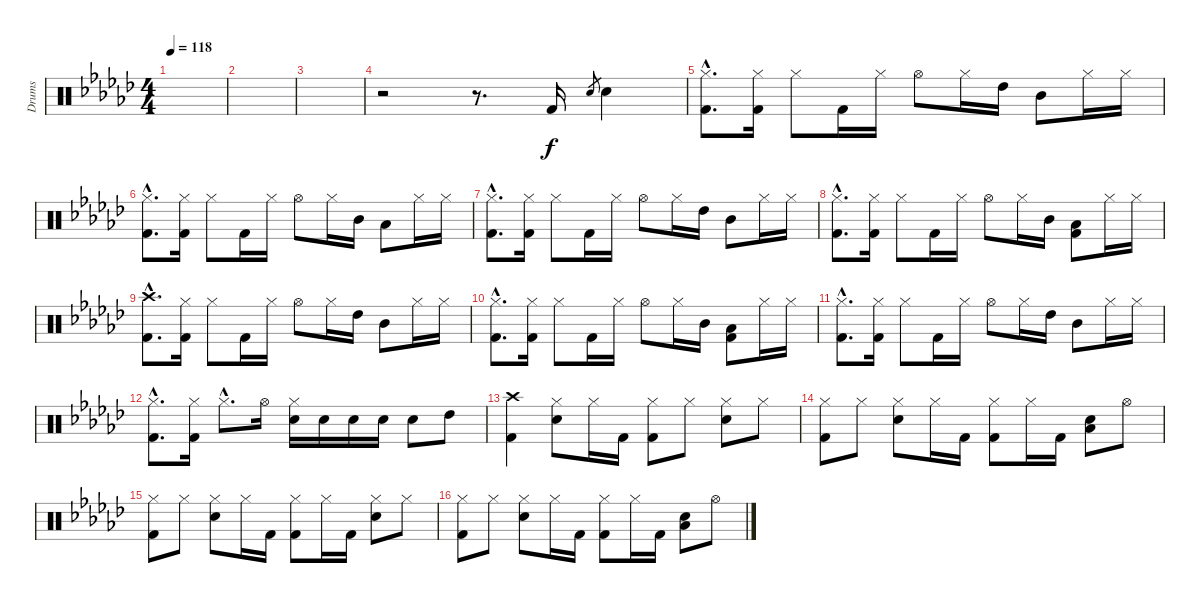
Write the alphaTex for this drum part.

\track ("Drums" "Drums") {instrument percussion}
\staff {score}
\articulation defaults
\ts (4 4)
\tempo 118
\clef neutral
\ks ebminor
|
|
|
r.2 r.8{d} "Kick (hit) 2".16 "Electric Snare (hit)".8{gr} "Electric Snare (hit)".4 |
("Hi-Hat (closed)"{hac} "Kick (hit) 2"{hac}).8{d} ("Hi-Hat (closed)" "Kick (hit) 2").16 "Hi-Hat (closed)".8 "Kick (hit) 2".16 "Hi-Hat (closed)".16 "Hi-Hat (open)".8 "Hi-Hat (closed)".16 "High Tom (hit)".16 "Mid Tom (hit)".8 "Hi-Hat (closed)".16 "Hi-Hat (closed)".16 |
("Hi-Hat (closed)"{hac} "Kick (hit) 2"{hac}).8{d} ("Hi-Hat (closed)" "Kick (hit) 2").16 "Hi-Hat (closed)".8 "Kick (hit) 2".16 "Hi-Hat (closed)".16 "Hi-Hat (open)".8 "Hi-Hat (closed)".16 "Mid Tom (hit)".16 "Low Tom (hit)".8 "Hi-Hat (closed)".16 "Hi-Hat (closed)".16 |
("Hi-Hat (closed)"{hac} "Kick (hit) 2"{hac}).8{d} ("Hi-Hat (closed)" "Kick (hit) 2").16 "Hi-Hat (closed)".8 "Kick (hit) 2".16 "Hi-Hat (closed)".16 "Hi-Hat (open)".8 "Hi-Hat (closed)".16 "High Tom (hit)".16 "Mid Tom (hit)".8 "Hi-Hat (closed)".16 "Hi-Hat (closed)".16 |
("Hi-Hat (closed)"{hac} "Kick (hit) 2"{hac}).8{d} ("Hi-Hat (closed)" "Kick (hit) 2").16 "Hi-Hat (closed)".8 "Kick (hit) 2".16 "Hi-Hat (closed)".16 "Hi-Hat (open)".8 "Hi-Hat (closed)".16 "Mid Tom (hit)".16 ("Low Tom (hit)" "Kick (hit) 2").8 "Hi-Hat (closed)".16 "Hi-Hat (closed)".16 |
("Crash high (hit)"{hac} "Kick (hit) 2"{hac}).8{d} ("Hi-Hat (closed)" "Kick (hit) 2").16 "Hi-Hat (closed)".8 "Kick (hit) 2".16 "Hi-Hat (closed)".16 "Hi-Hat (open)".8 "Hi-Hat (closed)".16 "High Tom (hit)".16 "Mid Tom (hit)".8 "Hi-Hat (closed)".16 "Hi-Hat (closed)".16 |
("Hi-Hat (closed)"{hac} "Kick (hit) 2"{hac}).8{d} ("Hi-Hat (closed)" "Kick (hit) 2").16 "Hi-Hat (closed)".8 "Kick (hit) 2".16 "Hi-Hat (closed)".16 "Hi-Hat (open)".8 "Hi-Hat (closed)".16 "Mid Tom (hit)".16 ("Low Tom (hit)" "Kick (hit) 2").8 "Hi-Hat (closed)".16 "Hi-Hat (closed)".16 |
("Hi-Hat (closed)"{hac} "Kick (hit) 2"{hac}).8{d} ("Hi-Hat (closed)" "Kick (hit) 2").16 "Hi-Hat (closed)".8 "Kick (hit) 2".16 "Hi-Hat (closed)".16 "Hi-Hat (open)".8 "Hi-Hat (closed)".16 "High Tom (hit)".16 "Mid Tom (hit)".8 "Hi-Hat (closed)".16 "Hi-Hat (closed)".16 |
("Hi-Hat (closed)"{hac} "Kick (hit) 2"{hac}).8{d} ("Hi-Hat (closed)" "Kick (hit) 2").16 "Hi-Hat (closed)"{hac}.8{d} "Hi-Hat (open)".16 ("Hi-Hat (closed)" "Electric Snare (hit)").16 "Electric Snare (hit)".16 "Electric Snare (hit)".16 "Electric Snare (hit)".16 "Electric Snare (hit)".8 "High Tom (hit)".8 |
("Crash high (hit)" "Kick (hit) 2").4 ("Hi-Hat (closed)" "Electric Snare (hit)").8 "Hi-Hat (closed)".16 "Kick (hit) 2".16 ("Hi-Hat (closed)" "Kick (hit) 2").8 "Hi-Hat (closed)".8 ("Hi-Hat (closed)" "Electric Snare (hit)").8 "Hi-Hat (closed)".8 |
("Hi-Hat (closed)" "Kick (hit) 2").8 "Hi-Hat (closed)".8 ("Hi-Hat (closed)" "Electric Snare (hit)").8 "Hi-Hat (closed)".16 "Kick (hit) 2".16 ("Hi-Hat (closed)" "Kick (hit) 2").8 "Hi-Hat (closed)".16 "Kick (hit) 2".16 ("Electric Snare (hit)" "Low Tom (hit)").8 "Hi-Hat (open)".8 |
("Hi-Hat (closed)" "Kick (hit) 2").8 "Hi-Hat (closed)".8 ("Hi-Hat (closed)" "Electric Snare (hit)").8 "Hi-Hat (closed)".16 "Kick (hit) 2".16 ("Hi-Hat (closed)" "Kick (hit) 2").8 "Hi-Hat (closed)".16 "Kick (hit) 2".16 ("Hi-Hat (closed)" "Electric Snare (hit)").8 "Hi-Hat (closed)".8 |
("Hi-Hat (closed)" "Kick (hit) 2").8 "Hi-Hat (closed)".8 ("Hi-Hat (closed)" "Electric Snare (hit)").8 "Hi-Hat (closed)".16 "Kick (hit) 2".16 ("Hi-Hat (closed)" "Kick (hit) 2").8 "Hi-Hat (closed)".16 "Kick (hit) 2".16 ("Electric Snare (hit)" "Low Tom (hit)").8 "Hi-Hat (open)".8
